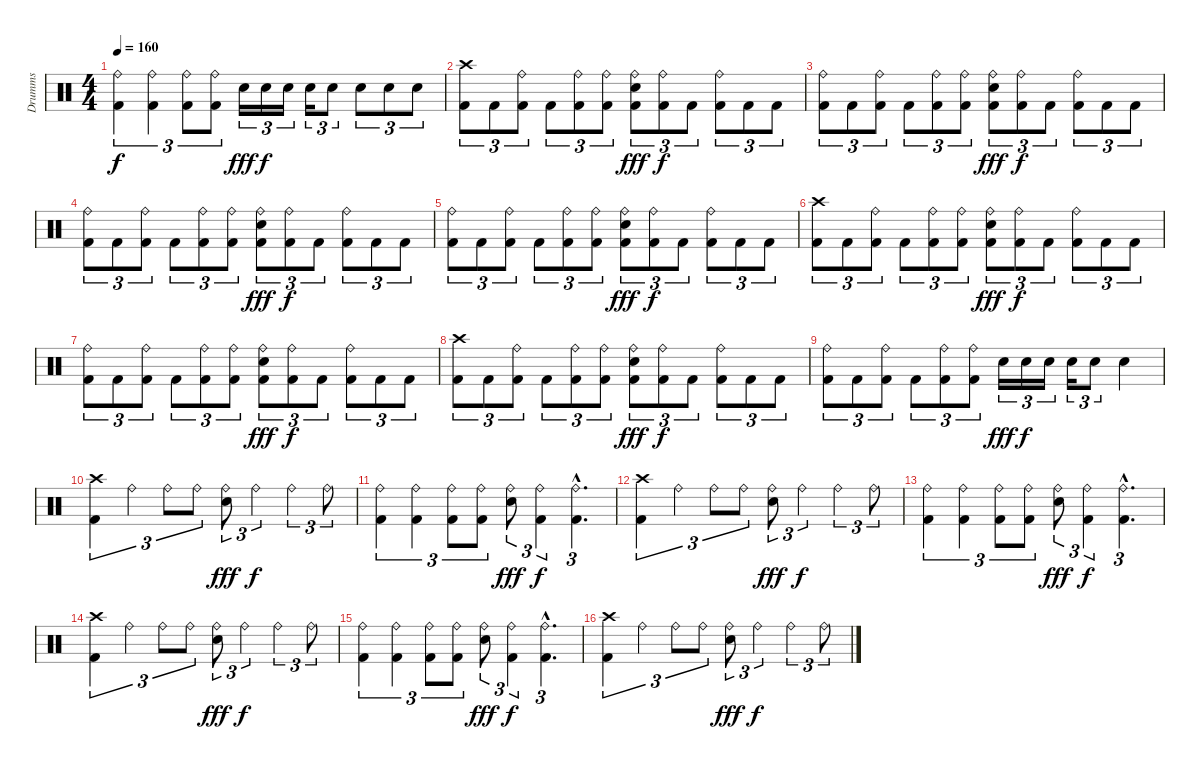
\track ("Drumms" "Drumms") {instrument percussion}
\staff {score}
\articulation defaults
\ts (4 4)
\tempo 160
\clef neutral
\ks c
("Ride (bell)" "Kick (hit) 2").4{tu (3 2) dy f} ("Ride (bell)" "Kick (hit) 2").4{tu (3 2)} ("Ride (bell)" "Kick (hit) 2").8{tu (3 2)} ("Ride (bell)" "Kick (hit) 2").8{tu (3 2)} "Snare (hit) 2".16{tu (3 2) dy fff} "Snare (hit) 2".16{tu (3 2) dy f} "Snare (hit) 2".16{tu (3 2)} "Snare (hit) 2".16{tu (3 2)} "Snare (hit) 2".8{tu (3 2)} "Snare (hit) 2".8{tu (3 2)} "Snare (hit) 2".8{tu (3 2)} "Snare (hit) 2".8{tu (3 2)} |
\section ("" "")
("Kick (hit) 2" "Crash high (hit)").8{tu (3 2)} "Kick (hit) 2".8{tu (3 2)} ("Kick (hit) 2" "Ride (bell)").8{tu (3 2)} "Kick (hit) 2".8{tu (3 2)} ("Kick (hit) 2" "Ride (bell)").8{tu (3 2)} ("Kick (hit) 2" "Ride (bell)").8{tu (3 2)} ("Snare (hit) 2" "Kick (hit) 2" "Ride (bell)").8{tu (3 2) dy fff} ("Kick (hit) 2" "Ride (bell)").8{tu (3 2) dy f} "Kick (hit) 2".8{tu (3 2)} ("Kick (hit) 2" "Ride (bell)").8{tu (3 2)} "Kick (hit) 2".8{tu (3 2)} "Kick (hit) 2".8{tu (3 2)} |
("Kick (hit) 2" "Ride (bell)").8{tu (3 2)} "Kick (hit) 2".8{tu (3 2)} ("Kick (hit) 2" "Ride (bell)").8{tu (3 2)} "Kick (hit) 2".8{tu (3 2)} ("Kick (hit) 2" "Ride (bell)").8{tu (3 2)} ("Kick (hit) 2" "Ride (bell)").8{tu (3 2)} ("Snare (hit) 2" "Kick (hit) 2" "Ride (bell)").8{tu (3 2) dy fff} ("Kick (hit) 2" "Ride (bell)").8{tu (3 2) dy f} "Kick (hit) 2".8{tu (3 2)} ("Kick (hit) 2" "Ride (bell)").8{tu (3 2)} "Kick (hit) 2".8{tu (3 2)} "Kick (hit) 2".8{tu (3 2)} |
("Kick (hit) 2" "Ride (bell)").8{tu (3 2)} "Kick (hit) 2".8{tu (3 2)} ("Kick (hit) 2" "Ride (bell)").8{tu (3 2)} "Kick (hit) 2".8{tu (3 2)} ("Kick (hit) 2" "Ride (bell)").8{tu (3 2)} ("Kick (hit) 2" "Ride (bell)").8{tu (3 2)} ("Snare (hit) 2" "Kick (hit) 2" "Ride (bell)").8{tu (3 2) dy fff} ("Kick (hit) 2" "Ride (bell)").8{tu (3 2) dy f} "Kick (hit) 2".8{tu (3 2)} ("Kick (hit) 2" "Ride (bell)").8{tu (3 2)} "Kick (hit) 2".8{tu (3 2)} "Kick (hit) 2".8{tu (3 2)} |
("Kick (hit) 2" "Ride (bell)").8{tu (3 2)} "Kick (hit) 2".8{tu (3 2)} ("Kick (hit) 2" "Ride (bell)").8{tu (3 2)} "Kick (hit) 2".8{tu (3 2)} ("Kick (hit) 2" "Ride (bell)").8{tu (3 2)} ("Kick (hit) 2" "Ride (bell)").8{tu (3 2)} ("Snare (hit) 2" "Kick (hit) 2" "Ride (bell)").8{tu (3 2) dy fff} ("Kick (hit) 2" "Ride (bell)").8{tu (3 2) dy f} "Kick (hit) 2".8{tu (3 2)} ("Kick (hit) 2" "Ride (bell)").8{tu (3 2)} "Kick (hit) 2".8{tu (3 2)} "Kick (hit) 2".8{tu (3 2)} |
("Kick (hit) 2" "Crash high (hit)").8{tu (3 2)} "Kick (hit) 2".8{tu (3 2)} ("Kick (hit) 2" "Ride (bell)").8{tu (3 2)} "Kick (hit) 2".8{tu (3 2)} ("Kick (hit) 2" "Ride (bell)").8{tu (3 2)} ("Kick (hit) 2" "Ride (bell)").8{tu (3 2)} ("Snare (hit) 2" "Kick (hit) 2" "Ride (bell)").8{tu (3 2) dy fff} ("Kick (hit) 2" "Ride (bell)").8{tu (3 2) dy f} "Kick (hit) 2".8{tu (3 2)} ("Kick (hit) 2" "Ride (bell)").8{tu (3 2)} "Kick (hit) 2".8{tu (3 2)} "Kick (hit) 2".8{tu (3 2)} |
("Kick (hit) 2" "Ride (bell)").8{tu (3 2)} "Kick (hit) 2".8{tu (3 2)} ("Kick (hit) 2" "Ride (bell)").8{tu (3 2)} "Kick (hit) 2".8{tu (3 2)} ("Kick (hit) 2" "Ride (bell)").8{tu (3 2)} ("Kick (hit) 2" "Ride (bell)").8{tu (3 2)} ("Snare (hit) 2" "Kick (hit) 2" "Ride (bell)").8{tu (3 2) dy fff} ("Kick (hit) 2" "Ride (bell)").8{tu (3 2) dy f} "Kick (hit) 2".8{tu (3 2)} ("Kick (hit) 2" "Ride (bell)").8{tu (3 2)} "Kick (hit) 2".8{tu (3 2)} "Kick (hit) 2".8{tu (3 2)} |
("Kick (hit) 2" "Crash high (hit)").8{tu (3 2)} "Kick (hit) 2".8{tu (3 2)} ("Kick (hit) 2" "Ride (bell)").8{tu (3 2)} "Kick (hit) 2".8{tu (3 2)} ("Kick (hit) 2" "Ride (bell)").8{tu (3 2)} ("Kick (hit) 2" "Ride (bell)").8{tu (3 2)} ("Snare (hit) 2" "Kick (hit) 2" "Ride (bell)").8{tu (3 2) dy fff} ("Kick (hit) 2" "Ride (bell)").8{tu (3 2) dy f} "Kick (hit) 2".8{tu (3 2)} ("Kick (hit) 2" "Ride (bell)").8{tu (3 2)} "Kick (hit) 2".8{tu (3 2)} "Kick (hit) 2".8{tu (3 2)} |
("Kick (hit) 2" "Ride (bell)").8{tu (3 2)} "Kick (hit) 2".8{tu (3 2)} ("Kick (hit) 2" "Ride (bell)").8{tu (3 2)} "Kick (hit) 2".8{tu (3 2)} ("Kick (hit) 2" "Ride (bell)").8{tu (3 2)} ("Kick (hit) 2" "Ride (bell)").8{tu (3 2)} "Snare (hit) 2".16{tu (3 2) dy fff} "Snare (hit) 2".16{tu (3 2) dy f} "Snare (hit) 2".16{tu (3 2)} "Snare (hit) 2".16{tu (3 2)} "Snare (hit) 2".8{tu (3 2)} "Snare (hit) 2".4 |
\section ("" "")
("Crash high (hit)" "Kick (hit) 2").4{tu (3 2)} "Ride (bell)".4{tu (3 2)} "Ride (bell)".8{tu (3 2)} "Ride (bell)".8{tu (3 2)} ("Ride (bell)" "Snare (hit) 2").8{tu (3 2) dy fff} "Ride (bell)".4{tu (3 2) dy f} "Ride (bell)".4{tu (3 2)} "Ride (bell)".8{tu (3 2)} |
("Ride (bell)" "Kick (hit) 2").4{tu (3 2)} ("Ride (bell)" "Kick (hit) 2").4{tu (3 2)} ("Ride (bell)" "Kick (hit) 2").8{tu (3 2)} ("Ride (bell)" "Kick (hit) 2").8{tu (3 2)} ("Ride (bell)" "Snare (hit) 2").8{tu (3 2) dy fff} ("Ride (bell)" "Kick (hit) 2").4{tu (3 2) dy f} ("Ride (bell)" "Kick (hit) 2"{hac}).4{d tu (3 2)} |
("Crash high (hit)" "Kick (hit) 2").4{tu (3 2)} "Ride (bell)".4{tu (3 2)} "Ride (bell)".8{tu (3 2)} "Ride (bell)".8{tu (3 2)} ("Ride (bell)" "Snare (hit) 2").8{tu (3 2) dy fff} "Ride (bell)".4{tu (3 2) dy f} "Ride (bell)".4{tu (3 2)} "Ride (bell)".8{tu (3 2)} |
("Ride (bell)" "Kick (hit) 2").4{tu (3 2)} ("Ride (bell)" "Kick (hit) 2").4{tu (3 2)} ("Ride (bell)" "Kick (hit) 2").8{tu (3 2)} ("Ride (bell)" "Kick (hit) 2").8{tu (3 2)} ("Ride (bell)" "Snare (hit) 2").8{tu (3 2) dy fff} ("Ride (bell)" "Kick (hit) 2").4{tu (3 2) dy f} ("Ride (bell)" "Kick (hit) 2"{hac}).4{d tu (3 2)} |
("Crash high (hit)" "Kick (hit) 2").4{tu (3 2)} "Ride (bell)".4{tu (3 2)} "Ride (bell)".8{tu (3 2)} "Ride (bell)".8{tu (3 2)} ("Ride (bell)" "Snare (hit) 2").8{tu (3 2) dy fff} "Ride (bell)".4{tu (3 2) dy f} "Ride (bell)".4{tu (3 2)} "Ride (bell)".8{tu (3 2)} |
("Ride (bell)" "Kick (hit) 2").4{tu (3 2)} ("Ride (bell)" "Kick (hit) 2").4{tu (3 2)} ("Ride (bell)" "Kick (hit) 2").8{tu (3 2)} ("Ride (bell)" "Kick (hit) 2").8{tu (3 2)} ("Ride (bell)" "Snare (hit) 2").8{tu (3 2) dy fff} ("Ride (bell)" "Kick (hit) 2").4{tu (3 2) dy f} ("Ride (bell)" "Kick (hit) 2"{hac}).4{d tu (3 2)} |
("Crash high (hit)" "Kick (hit) 2").4{tu (3 2)} "Ride (bell)".4{tu (3 2)} "Ride (bell)".8{tu (3 2)} "Ride (bell)".8{tu (3 2)} ("Ride (bell)" "Snare (hit) 2").8{tu (3 2) dy fff} "Ride (bell)".4{tu (3 2) dy f} "Ride (bell)".4{tu (3 2)} "Ride (bell)".8{tu (3 2)}
